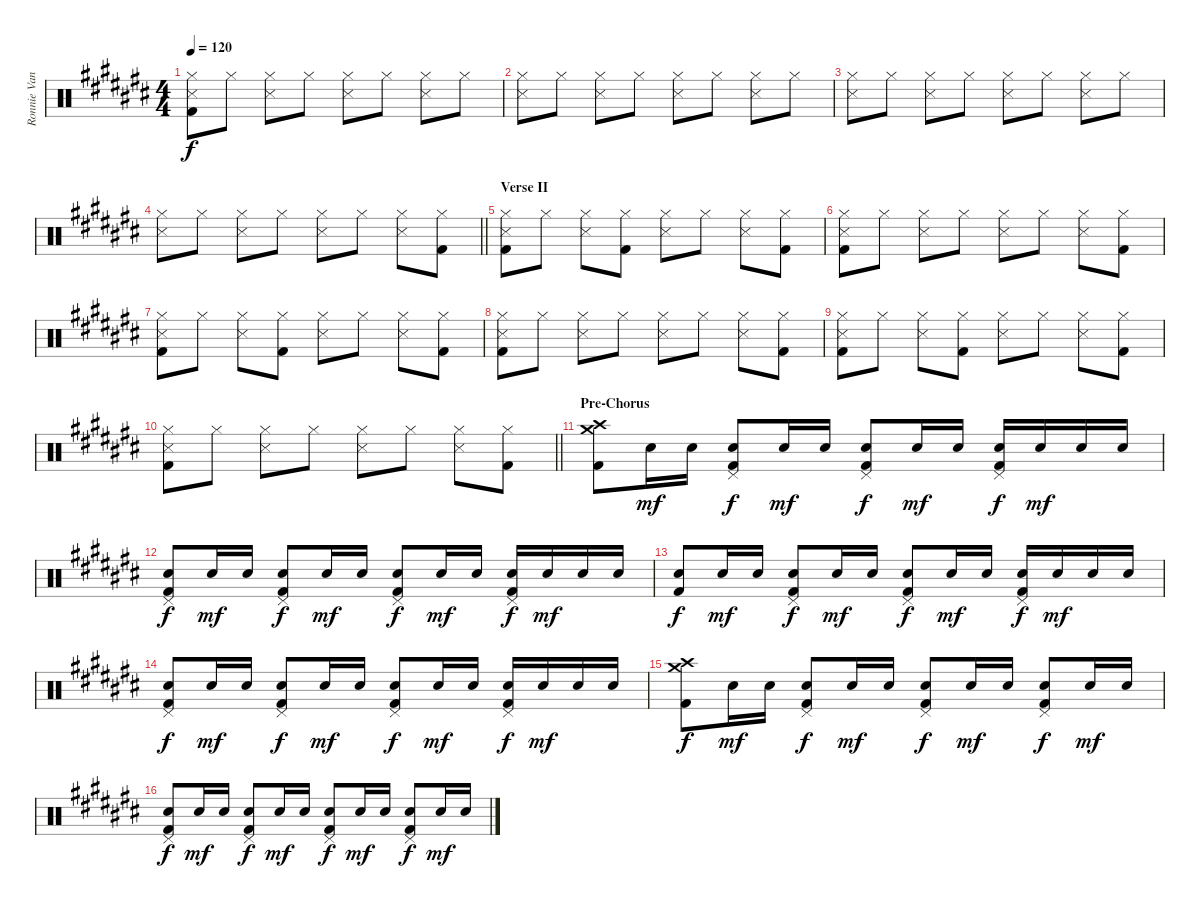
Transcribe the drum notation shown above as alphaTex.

\track ("Ronnie Vannucci Jr. drums" "Ronnie Van") {instrument percussion}
\staff {score}
\articulation defaults
\ts (4 4)
\tempo 120
\clef neutral
\ks c#
("Hi-Hat (closed)" "Snare (side stick) 3" "Kick (hit) 2").8{dy f} "Hi-Hat (closed)".8 ("Hi-Hat (closed)" "Snare (side stick) 3").8 "Hi-Hat (closed)".8 ("Hi-Hat (closed)" "Snare (side stick) 3").8 "Hi-Hat (closed)".8 ("Hi-Hat (closed)" "Snare (side stick) 3").8 "Hi-Hat (closed)".8 |
("Hi-Hat (closed)" "Snare (side stick) 3").8 "Hi-Hat (closed)".8 ("Hi-Hat (closed)" "Snare (side stick) 3").8 "Hi-Hat (closed)".8 ("Hi-Hat (closed)" "Snare (side stick) 3").8 "Hi-Hat (closed)".8 ("Hi-Hat (closed)" "Snare (side stick) 3").8 "Hi-Hat (closed)".8 |
("Hi-Hat (closed)" "Snare (side stick) 3").8 "Hi-Hat (closed)".8 ("Hi-Hat (closed)" "Snare (side stick) 3").8 "Hi-Hat (closed)".8 ("Hi-Hat (closed)" "Snare (side stick) 3").8 "Hi-Hat (closed)".8 ("Hi-Hat (closed)" "Snare (side stick) 3").8 "Hi-Hat (closed)".8 |
\barLineRight lightlight
("Hi-Hat (closed)" "Snare (side stick) 3").8 "Hi-Hat (closed)".8 ("Hi-Hat (closed)" "Snare (side stick) 3").8 "Hi-Hat (closed)".8 ("Hi-Hat (closed)" "Snare (side stick) 3").8 "Hi-Hat (closed)".8 ("Hi-Hat (closed)" "Snare (side stick) 3").8 ("Hi-Hat (closed)" "Kick (hit) 2").8 |
\section ("" "Verse II")
("Hi-Hat (closed)" "Snare (side stick) 3" "Kick (hit) 2").8 "Hi-Hat (closed)".8 ("Hi-Hat (closed)" "Snare (side stick) 3").8 ("Hi-Hat (closed)" "Kick (hit) 2").8 ("Hi-Hat (closed)" "Snare (side stick) 3").8 "Hi-Hat (closed)".8 ("Hi-Hat (closed)" "Snare (side stick) 3").8 ("Hi-Hat (closed)" "Kick (hit) 2").8 |
("Hi-Hat (closed)" "Snare (side stick) 3" "Kick (hit) 2").8 "Hi-Hat (closed)".8 ("Hi-Hat (closed)" "Snare (side stick) 3").8 "Hi-Hat (closed)".8 ("Hi-Hat (closed)" "Snare (side stick) 3").8 "Hi-Hat (closed)".8 ("Hi-Hat (closed)" "Snare (side stick) 3").8 ("Hi-Hat (closed)" "Kick (hit) 2").8 |
("Hi-Hat (closed)" "Snare (side stick) 3" "Kick (hit) 2").8 "Hi-Hat (closed)".8 ("Hi-Hat (closed)" "Snare (side stick) 3").8 ("Hi-Hat (closed)" "Kick (hit) 2").8 ("Hi-Hat (closed)" "Snare (side stick) 3").8 "Hi-Hat (closed)".8 ("Hi-Hat (closed)" "Snare (side stick) 3").8 ("Hi-Hat (closed)" "Kick (hit) 2").8 |
("Hi-Hat (closed)" "Snare (side stick) 3" "Kick (hit) 2").8 "Hi-Hat (closed)".8 ("Hi-Hat (closed)" "Snare (side stick) 3").8 "Hi-Hat (closed)".8 ("Hi-Hat (closed)" "Snare (side stick) 3").8 "Hi-Hat (closed)".8 ("Hi-Hat (closed)" "Snare (side stick) 3").8 ("Hi-Hat (closed)" "Kick (hit) 2").8 |
("Hi-Hat (closed)" "Snare (side stick) 3" "Kick (hit) 2").8 "Hi-Hat (closed)".8 ("Hi-Hat (closed)" "Snare (side stick) 3").8 ("Hi-Hat (closed)" "Kick (hit) 2").8 ("Hi-Hat (closed)" "Snare (side stick) 3").8 "Hi-Hat (closed)".8 ("Hi-Hat (closed)" "Snare (side stick) 3").8 ("Hi-Hat (closed)" "Kick (hit) 2").8 |
\barLineRight lightlight
("Hi-Hat (closed)" "Snare (side stick) 3" "Kick (hit) 2").8 "Hi-Hat (closed)".8 ("Hi-Hat (closed)" "Snare (side stick) 3").8 "Hi-Hat (closed)".8 ("Hi-Hat (closed)" "Snare (side stick) 3").8 "Hi-Hat (closed)".8 ("Hi-Hat (closed)" "Snare (side stick) 3").8 ("Hi-Hat (closed)" "Kick (hit) 2").8 |
\section ("" "Pre-Chorus")
("Crash high (hit)" "Crash medium (hit)" "Kick (hit) 2").8 "Electric Snare (hit)".16{dy mf} "Electric Snare (hit)".16 ("Pedal Hi-Hat (hit)" "Electric Snare (hit)" "Kick (hit) 2").8{dy f} "Electric Snare (hit)".16{dy mf} "Electric Snare (hit)".16 ("Pedal Hi-Hat (hit)" "Electric Snare (hit)" "Kick (hit) 2").8{dy f} "Electric Snare (hit)".16{dy mf} "Electric Snare (hit)".16 ("Pedal Hi-Hat (hit)" "Electric Snare (hit)" "Kick (hit) 2").16{dy f} "Electric Snare (hit)".16{dy mf} "Electric Snare (hit)".16 "Electric Snare (hit)".16 |
("Pedal Hi-Hat (hit)" "Electric Snare (hit)" "Kick (hit) 2").8{dy f} "Electric Snare (hit)".16{dy mf} "Electric Snare (hit)".16 ("Pedal Hi-Hat (hit)" "Electric Snare (hit)" "Kick (hit) 2").8{dy f} "Electric Snare (hit)".16{dy mf} "Electric Snare (hit)".16 ("Pedal Hi-Hat (hit)" "Electric Snare (hit)" "Kick (hit) 2").8{dy f} "Electric Snare (hit)".16{dy mf} "Electric Snare (hit)".16 ("Pedal Hi-Hat (hit)" "Electric Snare (hit)" "Kick (hit) 2").16{dy f} "Electric Snare (hit)".16{dy mf} "Electric Snare (hit)".16 "Electric Snare (hit)".16 |
("Electric Snare (hit)" "Kick (hit) 2").8{dy f} "Electric Snare (hit)".16{dy mf} "Electric Snare (hit)".16 ("Pedal Hi-Hat (hit)" "Electric Snare (hit)" "Kick (hit) 2").8{dy f} "Electric Snare (hit)".16{dy mf} "Electric Snare (hit)".16 ("Pedal Hi-Hat (hit)" "Electric Snare (hit)" "Kick (hit) 2").8{dy f} "Electric Snare (hit)".16{dy mf} "Electric Snare (hit)".16 ("Pedal Hi-Hat (hit)" "Electric Snare (hit)" "Kick (hit) 2").16{dy f} "Electric Snare (hit)".16{dy mf} "Electric Snare (hit)".16 "Electric Snare (hit)".16 |
("Pedal Hi-Hat (hit)" "Electric Snare (hit)" "Kick (hit) 2").8{dy f} "Electric Snare (hit)".16{dy mf} "Electric Snare (hit)".16 ("Pedal Hi-Hat (hit)" "Electric Snare (hit)" "Kick (hit) 2").8{dy f} "Electric Snare (hit)".16{dy mf} "Electric Snare (hit)".16 ("Pedal Hi-Hat (hit)" "Electric Snare (hit)" "Kick (hit) 2").8{dy f} "Electric Snare (hit)".16{dy mf} "Electric Snare (hit)".16 ("Pedal Hi-Hat (hit)" "Electric Snare (hit)" "Kick (hit) 2").16{dy f} "Electric Snare (hit)".16{dy mf} "Electric Snare (hit)".16 "Electric Snare (hit)".16 |
("Crash medium (hit)" "Crash high (hit)" "Kick (hit) 2").8{dy f} "Electric Snare (hit)".16{dy mf} "Electric Snare (hit)".16 ("Pedal Hi-Hat (hit)" "Electric Snare (hit)" "Kick (hit) 2").8{dy f} "Electric Snare (hit)".16{dy mf} "Electric Snare (hit)".16 ("Pedal Hi-Hat (hit)" "Electric Snare (hit)" "Kick (hit) 2").8{dy f} "Electric Snare (hit)".16{dy mf} "Electric Snare (hit)".16 ("Pedal Hi-Hat (hit)" "Electric Snare (hit)" "Kick (hit) 2").8{dy f} "Electric Snare (hit)".16{dy mf} "Electric Snare (hit)".16 |
("Pedal Hi-Hat (hit)" "Electric Snare (hit)" "Kick (hit) 2").8{dy f} "Electric Snare (hit)".16{dy mf} "Electric Snare (hit)".16 ("Pedal Hi-Hat (hit)" "Electric Snare (hit)" "Kick (hit) 2").8{dy f} "Electric Snare (hit)".16{dy mf} "Electric Snare (hit)".16 ("Pedal Hi-Hat (hit)" "Electric Snare (hit)" "Kick (hit) 2").8{dy f} "Electric Snare (hit)".16{dy mf} "Electric Snare (hit)".16 ("Pedal Hi-Hat (hit)" "Electric Snare (hit)" "Kick (hit) 2").8{dy f} "Electric Snare (hit)".16{dy mf} "Electric Snare (hit)".16
